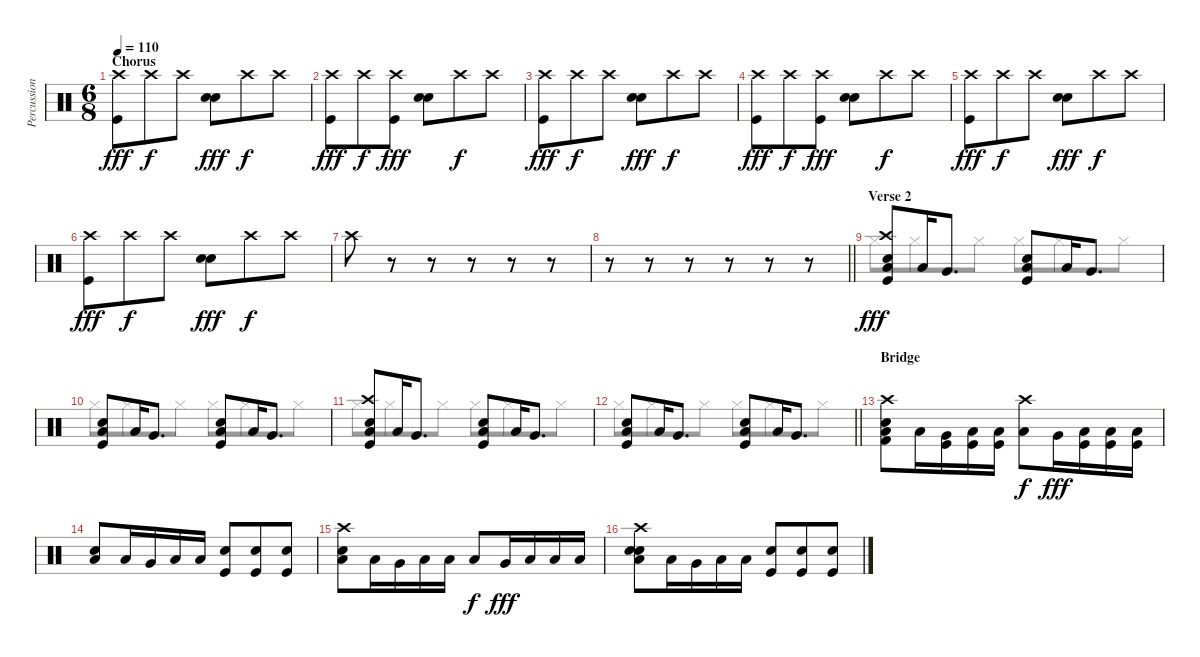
\track ("Percussion" "Percussion") {instrument percussion}
\staff {score}
\articulation defaults
\voice
\ts (6 8)
\section ("" "Chorus")
\tempo 110
\clef neutral
\ks c
("Crash high (hit)" "Kick (hit)").8{dy fff} "Crash high (hit)".8{dy f} "Crash high (hit)".8 ("Electric Snare (hit)" "Electric Snare (hit)").8{dy fff} "Crash high (hit)".8{dy f} "Crash high (hit)".8 |
("Crash high (hit)" "Kick (hit)").8{dy fff} "Crash high (hit)".8{dy f} ("Crash high (hit)" "Kick (hit)").8{dy fff} ("Electric Snare (hit)" "Electric Snare (hit)").8 "Crash high (hit)".8{dy f} "Crash high (hit)".8 |
("Crash high (hit)" "Kick (hit)").8{dy fff} "Crash high (hit)".8{dy f} "Crash high (hit)".8 ("Electric Snare (hit)" "Electric Snare (hit)").8{dy fff} "Crash high (hit)".8{dy f} "Crash high (hit)".8 |
("Crash high (hit)" "Kick (hit)").8{dy fff} "Crash high (hit)".8{dy f} ("Crash high (hit)" "Kick (hit)").8{dy fff} ("Electric Snare (hit)" "Electric Snare (hit)").8 "Crash high (hit)".8{dy f} "Crash high (hit)".8 |
("Crash high (hit)" "Kick (hit)").8{dy fff} "Crash high (hit)".8{dy f} "Crash high (hit)".8 ("Electric Snare (hit)" "Electric Snare (hit)").8{dy fff} "Crash high (hit)".8{dy f} "Crash high (hit)".8 |
("Crash high (hit)" "Kick (hit)").8{dy fff} "Crash high (hit)".8{dy f} "Crash high (hit)".8 ("Electric Snare (hit)" "Electric Snare (hit)").8{dy fff} "Crash high (hit)".8{dy f} "Crash high (hit)".8 |
"Crash high (hit)".8 r.8 r.8 r.8 r.8 r.8 |
\barLineRight lightlight
r.8 r.8 r.8 r.8 r.8 r.8 |
\section ("" "Verse 2")
("Crash high (hit)" "Electric Snare (hit)" "Low Floor Tom (hit)" "Kick (hit)").8{dy fff} "Low Floor Tom (hit)".16 "Very Low Tom (hit)".8{d} ("Electric Snare (hit)" "Low Floor Tom (hit)" "Kick (hit)").8 "Low Floor Tom (hit)".16 "Very Low Tom (hit)".8{d} |
("Electric Snare (hit)" "Low Floor Tom (hit)" "Kick (hit)").8 "Low Floor Tom (hit)".16 "Very Low Tom (hit)".8{d} ("Electric Snare (hit)" "Low Floor Tom (hit)" "Kick (hit)").8 "Low Floor Tom (hit)".16 "Very Low Tom (hit)".8{d} |
("Crash high (hit)" "Electric Snare (hit)" "Low Floor Tom (hit)" "Kick (hit)").8 "Low Floor Tom (hit)".16 "Very Low Tom (hit)".8{d} ("Electric Snare (hit)" "Low Floor Tom (hit)" "Kick (hit)").8 "Low Floor Tom (hit)".16 "Very Low Tom (hit)".8{d} |
\barLineRight lightlight
("Electric Snare (hit)" "Low Floor Tom (hit)" "Kick (hit)").8 "Low Floor Tom (hit)".16 "Very Low Tom (hit)".8{d} ("Electric Snare (hit)" "Low Floor Tom (hit)" "Kick (hit)").8 "Low Floor Tom (hit)".16 "Very Low Tom (hit)".8{d} |
\section ("" "Bridge")
("Electric Snare (hit)" "Crash high (hit)" "Low Floor Tom (hit)" "Kick (hit) 2").8 "Low Floor Tom (hit)".16 ("Very Low Tom (hit)" "Kick (hit)").16 ("Low Tom (hit)" "Kick (hit)").16 ("Low Floor Tom (hit)" "Kick (hit)").16 ("Crash high (hit)" "Low Floor Tom (hit)").8{dy f} "Very Low Tom (hit)".16{dy fff} ("Low Tom (hit)" "Kick (hit)").16 ("Low Floor Tom (hit)" "Kick (hit)").16 ("Low Floor Tom (hit)" "Kick (hit)").16 |
("Low Floor Tom (hit)" "Electric Snare (hit)").8 "Low Floor Tom (hit)".16 "Very Low Tom (hit)".16 "Low Tom (hit)".16 "Low Floor Tom (hit)".16 ("Electric Snare (hit)" "Kick (hit)").8 ("Electric Snare (hit)" "Kick (hit)").8 ("Electric Snare (hit)" "Kick (hit)").8 |
("Crash high (hit)" "Low Floor Tom (hit)" "Electric Snare (hit)").8 "Low Floor Tom (hit)".16 "Very Low Tom (hit)".16 "Low Tom (hit)".16 "Low Floor Tom (hit)".16 "Low Floor Tom (hit)".8{dy f} "Very Low Tom (hit)".16{dy fff} "Low Tom (hit)".16 "Low Floor Tom (hit)".16 "Low Floor Tom (hit)".16 |
("Snare (hit) 2" "Crash high (hit)" "Low Floor Tom (hit)" "Electric Snare (hit)").8 "Low Floor Tom (hit)".16 "Very Low Tom (hit)".16 "Low Tom (hit)".16 "Low Floor Tom (hit)".16 ("Electric Snare (hit)" "Kick (hit)").8 ("Electric Snare (hit)" "Kick (hit)").8 ("Electric Snare (hit)" "Kick (hit)").8
\voice
\clef neutral
\ottava regular
\simile none
\ks c
|
|
|
|
|
|
|
\barLineRight lightlight
|
"Hi-Hat (closed)".8 "Hi-Hat (closed)".8 "Hi-Hat (closed)".8 "Hi-Hat (closed)".8 "Hi-Hat (closed)".8 "Hi-Hat (closed)".8 |
"Hi-Hat (closed)".8 "Hi-Hat (closed)".8 "Hi-Hat (closed)".8 "Hi-Hat (closed)".8 "Hi-Hat (closed)".8 "Hi-Hat (closed)".8 |
"Hi-Hat (closed)".8 "Hi-Hat (closed)".8 "Hi-Hat (closed)".8 "Hi-Hat (closed)".8 "Hi-Hat (closed)".8 "Hi-Hat (closed)".8 |
\barLineRight lightlight "Hi-Hat (closed)".8 "Hi-Hat (closed)".8 "Hi-Hat (closed)".8 "Hi-Hat (closed)".8 "Hi-Hat (closed)".8 "Hi-Hat (closed)".8
|
|
|
|
